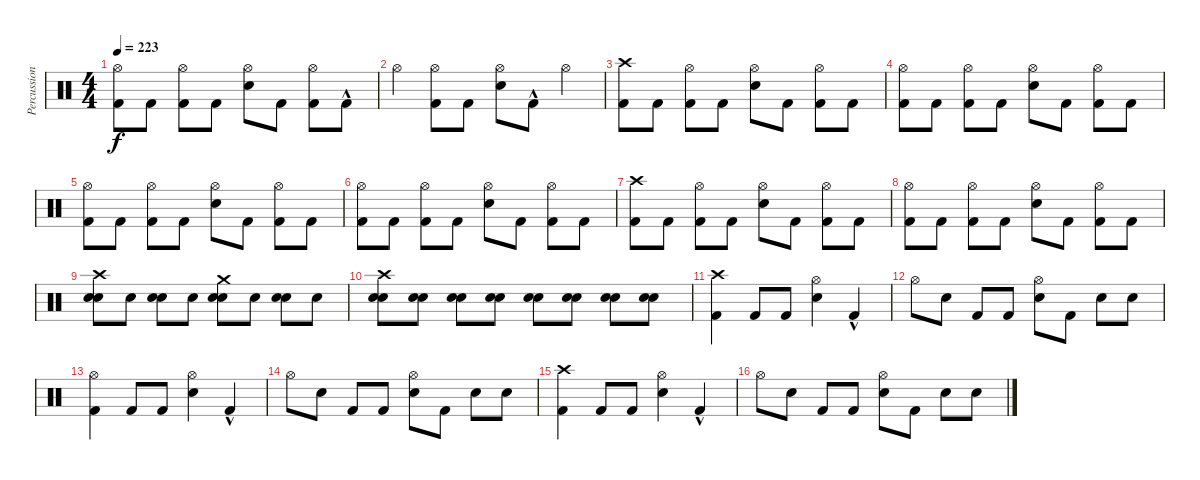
\track ("Percussion" "Percussion") {instrument percussion}
\staff {score}
\articulation defaults
\ts (4 4)
\tempo 223
\clef neutral
\ks c
("Hi-Hat (open)" "Kick (hit) 2").8{dy f} "Kick (hit) 2".8 ("Hi-Hat (open)" "Kick (hit) 2").8 "Kick (hit) 2".8 ("Hi-Hat (open)" "Electric Snare (hit)").8 "Kick (hit) 2".8 ("Hi-Hat (open)" "Kick (hit) 2").8 "Kick (hit) 2"{hac}.8 |
"Hi-Hat (open)".4 ("Hi-Hat (open)" "Kick (hit) 2").8 "Kick (hit) 2".8 ("Hi-Hat (open)" "Electric Snare (hit)").8 "Kick (hit) 2"{hac}.8 "Hi-Hat (open)".4 |
("Crash high (hit)" "Kick (hit) 2").8 "Kick (hit) 2".8 ("Hi-Hat (open)" "Kick (hit) 2").8 "Kick (hit) 2".8 ("Hi-Hat (open)" "Electric Snare (hit)").8 "Kick (hit) 2".8 ("Hi-Hat (open)" "Kick (hit) 2").8 "Kick (hit) 2".8 |
("Hi-Hat (open)" "Kick (hit) 2").8 "Kick (hit) 2".8 ("Hi-Hat (open)" "Kick (hit) 2").8 "Kick (hit) 2".8 ("Hi-Hat (open)" "Electric Snare (hit)").8 "Kick (hit) 2".8 ("Hi-Hat (open)" "Kick (hit) 2").8 "Kick (hit) 2".8 |
("Hi-Hat (open)" "Kick (hit) 2").8 "Kick (hit) 2".8 ("Hi-Hat (open)" "Kick (hit) 2").8 "Kick (hit) 2".8 ("Hi-Hat (open)" "Electric Snare (hit)").8 "Kick (hit) 2".8 ("Hi-Hat (open)" "Kick (hit) 2").8 "Kick (hit) 2".8 |
("Hi-Hat (open)" "Kick (hit) 2").8 "Kick (hit) 2".8 ("Hi-Hat (open)" "Kick (hit) 2").8 "Kick (hit) 2".8 ("Hi-Hat (open)" "Electric Snare (hit)").8 "Kick (hit) 2".8 ("Hi-Hat (open)" "Kick (hit) 2").8 "Kick (hit) 2".8 |
("Crash high (hit)" "Kick (hit) 2").8 "Kick (hit) 2".8 ("Hi-Hat (open)" "Kick (hit) 2").8 "Kick (hit) 2".8 ("Hi-Hat (open)" "Electric Snare (hit)").8 "Kick (hit) 2".8 ("Hi-Hat (open)" "Kick (hit) 2").8 "Kick (hit) 2".8 |
("Hi-Hat (open)" "Kick (hit) 2").8 "Kick (hit) 2".8 ("Hi-Hat (open)" "Kick (hit) 2").8 "Kick (hit) 2".8 ("Hi-Hat (open)" "Electric Snare (hit)").8 "Kick (hit) 2".8 ("Hi-Hat (open)" "Kick (hit) 2").8 "Kick (hit) 2".8 |
("Electric Snare (hit)" "Crash high (hit)" "Electric Snare (hit)").8 "Electric Snare (hit)".8 ("Electric Snare (hit)" "Electric Snare (hit)").8 "Electric Snare (hit)".8 ("Electric Snare (hit)" "Crash medium (hit)" "Electric Snare (hit)").8 "Electric Snare (hit)".8 ("Electric Snare (hit)" "Electric Snare (hit)").8 "Electric Snare (hit)".8 |
("Electric Snare (hit)" "Crash high (hit)" "Electric Snare (hit)").8 ("Electric Snare (hit)" "Electric Snare (hit)").8 ("Electric Snare (hit)" "Electric Snare (hit)").8 ("Electric Snare (hit)" "Electric Snare (hit)").8 ("Electric Snare (hit)" "Electric Snare (hit)").8 ("Electric Snare (hit)" "Electric Snare (hit)").8 ("Electric Snare (hit)" "Electric Snare (hit)").8 ("Electric Snare (hit)" "Electric Snare (hit)").8 |
("Crash high (hit)" "Kick (hit) 2").4 "Kick (hit) 2".8 "Kick (hit) 2".8 ("Hi-Hat (open)" "Electric Snare (hit)").4 "Kick (hit) 2"{hac}.4 |
"Hi-Hat (open)".8 "Electric Snare (hit)".8 "Kick (hit) 2".8 "Kick (hit) 2".8 ("Hi-Hat (open)" "Electric Snare (hit)").8 "Kick (hit) 2".8 "Electric Snare (hit)".8 "Electric Snare (hit)".8 |
("Hi-Hat (open)" "Kick (hit) 2").4 "Kick (hit) 2".8 "Kick (hit) 2".8 ("Hi-Hat (open)" "Electric Snare (hit)").4 "Kick (hit) 2"{hac}.4 |
"Hi-Hat (open)".8 "Electric Snare (hit)".8 "Kick (hit) 2".8 "Kick (hit) 2".8 ("Hi-Hat (open)" "Electric Snare (hit)").8 "Kick (hit) 2".8 "Electric Snare (hit)".8 "Electric Snare (hit)".8 |
("Crash high (hit)" "Kick (hit) 2").4 "Kick (hit) 2".8 "Kick (hit) 2".8 ("Hi-Hat (open)" "Electric Snare (hit)").4 "Kick (hit) 2"{hac}.4 |
"Hi-Hat (open)".8 "Electric Snare (hit)".8 "Kick (hit) 2".8 "Kick (hit) 2".8 ("Hi-Hat (open)" "Electric Snare (hit)").8 "Kick (hit) 2".8 "Electric Snare (hit)".8 "Electric Snare (hit)".8
